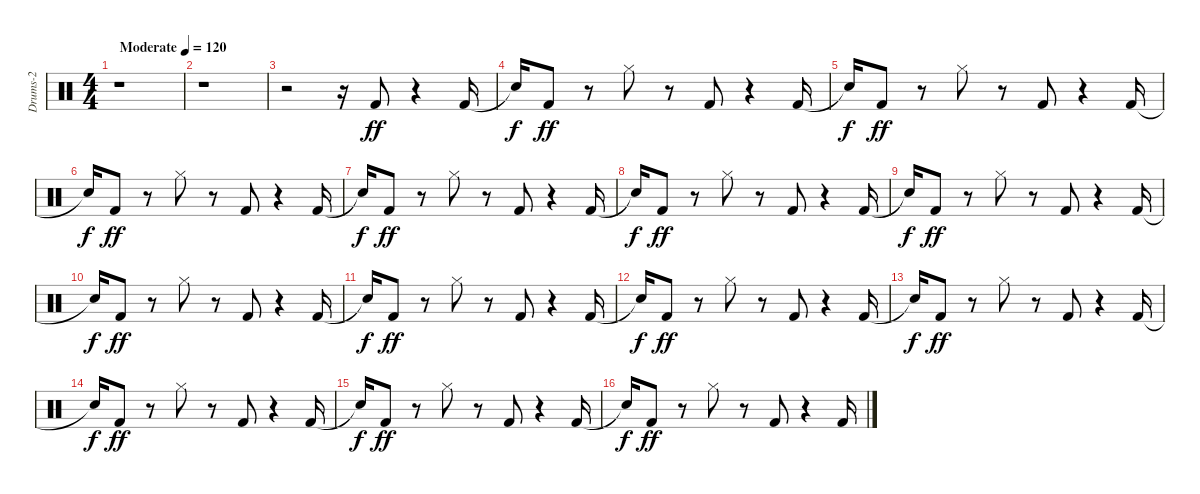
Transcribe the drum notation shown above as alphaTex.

\track ("Drums-2" "Drums-2") {instrument percussion}
\staff {score}
\articulation defaults
\ts (4 4)
\tempo (120 "Moderate")
\clef neutral
\ks c
r.1{dy ff} |
r.1 |
r.2 r.16 "Kick (hit) 2".8 r.4 "Kick (hit) 2".16 |
"Snare (hit)"{t}.16{dy f} "Kick (hit) 2".8{dy ff} r.8 "Hi-Hat (closed)".8 r.8 "Kick (hit) 2".8 r.4 "Kick (hit) 2".16 |
"Snare (hit)"{t}.16{dy f} "Kick (hit) 2".8{dy ff} r.8 "Hi-Hat (closed)".8 r.8 "Kick (hit) 2".8 r.4 "Kick (hit) 2".16 |
"Snare (hit)"{t}.16{dy f} "Kick (hit) 2".8{dy ff} r.8 "Hi-Hat (closed)".8 r.8 "Kick (hit) 2".8 r.4 "Kick (hit) 2".16 |
"Snare (hit)"{t}.16{dy f} "Kick (hit) 2".8{dy ff} r.8 "Hi-Hat (closed)".8 r.8 "Kick (hit) 2".8 r.4 "Kick (hit) 2".16 |
"Snare (hit)"{t}.16{dy f} "Kick (hit) 2".8{dy ff} r.8 "Hi-Hat (closed)".8 r.8 "Kick (hit) 2".8 r.4 "Kick (hit) 2".16 |
"Snare (hit)"{t}.16{dy f} "Kick (hit) 2".8{dy ff} r.8 "Hi-Hat (closed)".8 r.8 "Kick (hit) 2".8 r.4 "Kick (hit) 2".16 |
"Snare (hit)"{t}.16{dy f} "Kick (hit) 2".8{dy ff} r.8 "Hi-Hat (closed)".8 r.8 "Kick (hit) 2".8 r.4 "Kick (hit) 2".16 |
"Snare (hit)"{t}.16{dy f} "Kick (hit) 2".8{dy ff} r.8 "Hi-Hat (closed)".8 r.8 "Kick (hit) 2".8 r.4 "Kick (hit) 2".16 |
"Snare (hit)"{t}.16{dy f} "Kick (hit) 2".8{dy ff} r.8 "Hi-Hat (closed)".8 r.8 "Kick (hit) 2".8 r.4 "Kick (hit) 2".16 |
"Snare (hit)"{t}.16{dy f} "Kick (hit) 2".8{dy ff} r.8 "Hi-Hat (closed)".8 r.8 "Kick (hit) 2".8 r.4 "Kick (hit) 2".16 |
"Snare (hit)"{t}.16{dy f} "Kick (hit) 2".8{dy ff} r.8 "Hi-Hat (closed)".8 r.8 "Kick (hit) 2".8 r.4 "Kick (hit) 2".16 |
"Snare (hit)"{t}.16{dy f} "Kick (hit) 2".8{dy ff} r.8 "Hi-Hat (closed)".8 r.8 "Kick (hit) 2".8 r.4 "Kick (hit) 2".16 |
"Snare (hit)"{t}.16{dy f} "Kick (hit) 2".8{dy ff} r.8 "Hi-Hat (closed)".8 r.8 "Kick (hit) 2".8 r.4 "Kick (hit) 2".16
